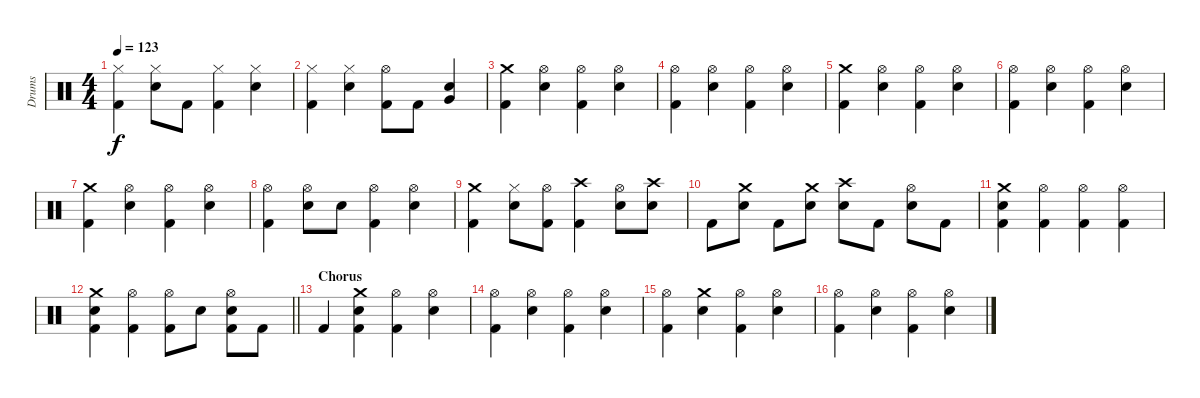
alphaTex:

\track ("Drums" "Drums") {instrument percussion}
\staff {score}
\articulation defaults
\ts (4 4)
\tempo 123
\clef neutral
\ks c
("Hi-Hat (closed)" "Kick (hit) 2").4{dy f} ("Hi-Hat (closed)" "Electric Snare (hit)").8 "Kick (hit) 2".8 ("Hi-Hat (closed)" "Kick (hit) 2").4 ("Hi-Hat (closed)" "Electric Snare (hit)").4 |
("Hi-Hat (closed)" "Kick (hit) 2").4 ("Hi-Hat (closed)" "Electric Snare (hit)").4 ("Hi-Hat (open)" "Kick (hit) 2").8 "Kick (hit) 2".8 ("Very Low Tom (hit)" "Electric Snare (hit)").4 |
("Crash medium (hit)" "Kick (hit) 2").4 ("Hi-Hat (open)" "Electric Snare (hit)").4 ("Hi-Hat (open)" "Kick (hit) 2").4 ("Hi-Hat (open)" "Electric Snare (hit)").4 |
("Hi-Hat (open)" "Kick (hit) 2").4 ("Hi-Hat (open)" "Electric Snare (hit)").4 ("Hi-Hat (open)" "Kick (hit) 2").4 ("Hi-Hat (open)" "Electric Snare (hit)").4 |
("Crash medium (hit)" "Kick (hit) 2").4 ("Hi-Hat (open)" "Electric Snare (hit)").4 ("Hi-Hat (open)" "Kick (hit) 2").4 ("Hi-Hat (open)" "Electric Snare (hit)").4 |
("Hi-Hat (open)" "Kick (hit) 2").4 ("Hi-Hat (open)" "Electric Snare (hit)").4 ("Hi-Hat (open)" "Kick (hit) 2").4 ("Hi-Hat (open)" "Electric Snare (hit)").4 |
("Crash medium (hit)" "Kick (hit) 2").4 ("Hi-Hat (open)" "Electric Snare (hit)").4 ("Hi-Hat (open)" "Kick (hit) 2").4 ("Hi-Hat (open)" "Electric Snare (hit)").4 |
("Hi-Hat (open)" "Kick (hit) 2").4 ("Hi-Hat (open)" "Electric Snare (hit)").8 "Electric Snare (hit)".8 ("Hi-Hat (open)" "Kick (hit) 2").4 ("Hi-Hat (open)" "Electric Snare (hit)").4 |
("Crash medium (hit)" "Kick (hit) 2").4 ("Hi-Hat (closed)" "Electric Snare (hit)").8 ("Hi-Hat (open)" "Kick (hit) 2").8 ("Crash high (hit)" "Kick (hit) 2").4 ("Hi-Hat (open)" "Electric Snare (hit)").8 ("Crash high (hit)" "Electric Snare (hit)").8 |
"Kick (hit) 2".8 ("Crash medium (hit)" "Electric Snare (hit)").8 "Kick (hit) 2".8 ("Crash medium (hit)" "Electric Snare (hit)").8 ("Crash high (hit)" "Electric Snare (hit)").8 "Kick (hit) 2".8 ("Hi-Hat (open)" "Electric Snare (hit)").8 "Kick (hit) 2".8 |
("Crash medium (hit)" "Electric Snare (hit)" "Kick (hit) 2").4 ("Hi-Hat (open)" "Kick (hit) 2").4 ("Hi-Hat (open)" "Kick (hit) 2").4 ("Hi-Hat (open)" "Kick (hit) 2").4 |
\barLineRight lightlight
("Crash medium (hit)" "Electric Snare (hit)" "Kick (hit) 2").4 ("Hi-Hat (open)" "Kick (hit) 2").4 ("Hi-Hat (open)" "Kick (hit) 2").8 "Electric Snare (hit)".8 ("Hi-Hat (open)" "Electric Snare (hit)" "Kick (hit) 2").8 "Kick (hit) 2".8 |
\section ("" "Chorus")
"Kick (hit) 2".4 ("Crash medium (hit)" "Electric Snare (hit)" "Kick (hit) 2").4 ("Hi-Hat (open)" "Kick (hit) 2").4 ("Hi-Hat (open)" "Electric Snare (hit)").4 |
("Hi-Hat (open)" "Kick (hit) 2").4 ("Hi-Hat (open)" "Electric Snare (hit)").4 ("Hi-Hat (open)" "Kick (hit) 2").4 ("Hi-Hat (open)" "Electric Snare (hit)").4 |
("Hi-Hat (open)" "Kick (hit) 2").4 ("Crash medium (hit)" "Electric Snare (hit)").4 ("Hi-Hat (open)" "Kick (hit) 2").4 ("Hi-Hat (open)" "Electric Snare (hit)").4 |
("Hi-Hat (open)" "Kick (hit) 2").4 ("Hi-Hat (open)" "Electric Snare (hit)").4 ("Hi-Hat (open)" "Kick (hit) 2").4 ("Hi-Hat (open)" "Electric Snare (hit)").4
